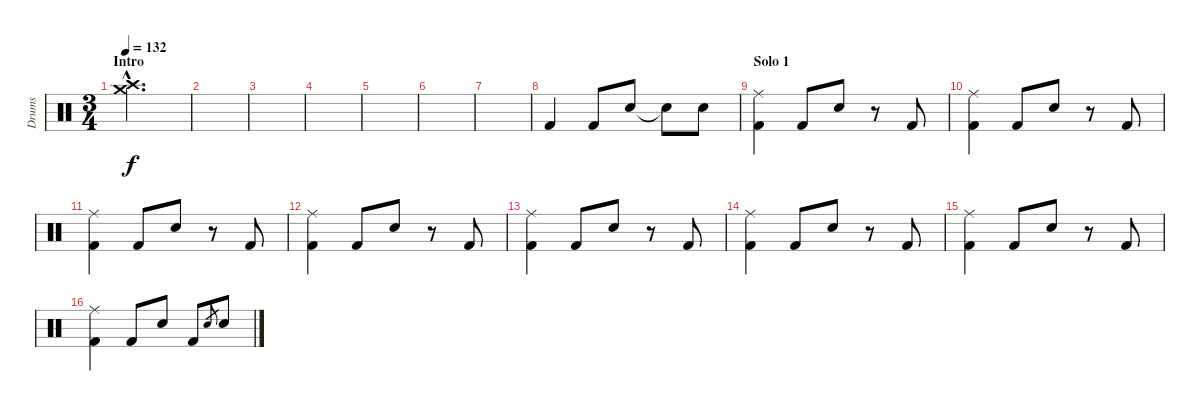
\track ("Drums" "Drums") {instrument percussion}
\staff {score}
\articulation defaults
\ts (3 4)
\section ("" "Intro")
\tempo 132
\clef neutral
\ks c
("Crash medium (hit)"{hac} "Crash high (hit)"{hac}).2{d dy f} |
|
|
|
|
|
|
"Kick (hit) 2".4 "Kick (hit) 2".8 "Electric Snare (hit)".8 "Snare (hit)"{t}.8 "Electric Snare (hit)".8 |
\section ("" "Solo 1")
("Ride (middle)" "Kick (hit) 2").4 "Kick (hit) 2".8 "Electric Snare (hit)".8 r.8 "Kick (hit) 2".8 |
("Ride (middle)" "Kick (hit) 2").4 "Kick (hit) 2".8 "Electric Snare (hit)".8 r.8 "Kick (hit) 2".8 |
("Ride (middle)" "Kick (hit) 2").4 "Kick (hit) 2".8 "Electric Snare (hit)".8 r.8 "Kick (hit) 2".8 |
("Ride (middle)" "Kick (hit) 2").4 "Kick (hit) 2".8 "Electric Snare (hit)".8 r.8 "Kick (hit) 2".8 |
("Ride (middle)" "Kick (hit) 2").4 "Kick (hit) 2".8 "Electric Snare (hit)".8 r.8 "Kick (hit) 2".8 |
("Ride (middle)" "Kick (hit) 2").4 "Kick (hit) 2".8 "Electric Snare (hit)".8 r.8 "Kick (hit) 2".8 |
("Ride (middle)" "Kick (hit) 2").4 "Kick (hit) 2".8 "Electric Snare (hit)".8 r.8 "Kick (hit) 2".8 |
("Ride (middle)" "Kick (hit) 2").4 "Kick (hit) 2".8 "Electric Snare (hit)".8 "Kick (hit) 2".8 "Electric Snare (hit)".8{gr} "Electric Snare (hit)".8
